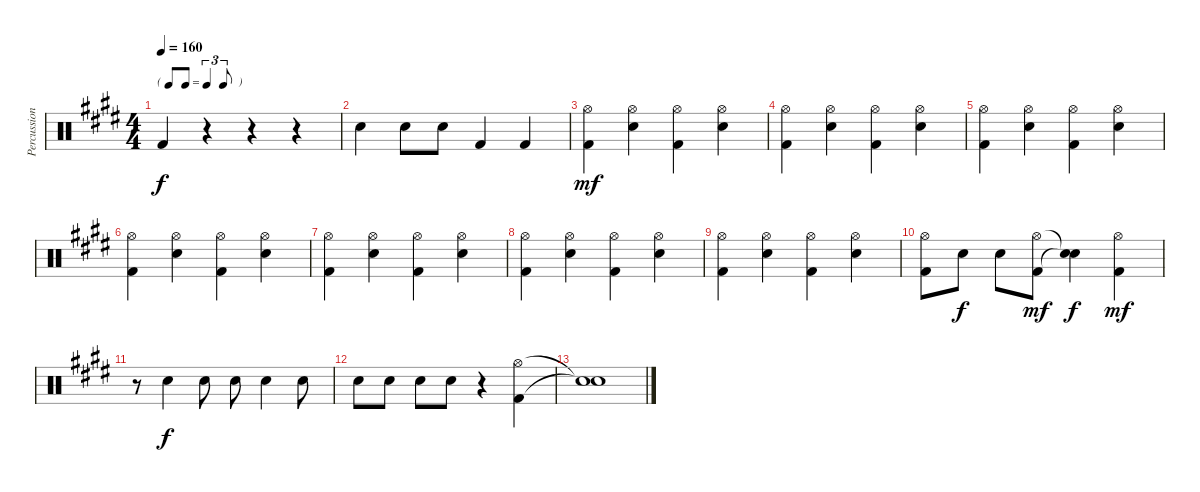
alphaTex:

\track ("Percussion" "Percussion") {instrument percussion}
\staff {score}
\articulation defaults
\ts (4 4)
\tf triplet8th
\tempo 160
\clef neutral
\ks e "Kick (hit) 2".4{dy f}
r.4 r.4 r.4 |
"Snare (hit) 2".4 "Snare (hit) 2".8 "Snare (hit) 2".8 "Kick (hit) 2".4 "Kick (hit) 2".4 |
("Hi-Hat (open)" "Kick (hit) 2").4{dy mf} ("Hi-Hat (open)" "Snare (hit) 2").4 ("Hi-Hat (open)" "Kick (hit) 2").4 ("Hi-Hat (open)" "Snare (hit) 2").4 |
("Hi-Hat (open)" "Kick (hit) 2").4 ("Hi-Hat (open)" "Snare (hit) 2").4 ("Hi-Hat (open)" "Kick (hit) 2").4 ("Hi-Hat (open)" "Snare (hit) 2").4 |
("Hi-Hat (open)" "Kick (hit) 2").4 ("Hi-Hat (open)" "Snare (hit) 2").4 ("Hi-Hat (open)" "Kick (hit) 2").4 ("Hi-Hat (open)" "Snare (hit) 2").4 |
("Hi-Hat (open)" "Kick (hit) 2").4 ("Hi-Hat (open)" "Snare (hit) 2").4 ("Hi-Hat (open)" "Kick (hit) 2").4 ("Hi-Hat (open)" "Snare (hit) 2").4 |
("Hi-Hat (open)" "Kick (hit) 2").4 ("Hi-Hat (open)" "Snare (hit) 2").4 ("Hi-Hat (open)" "Kick (hit) 2").4 ("Hi-Hat (open)" "Snare (hit) 2").4 |
("Hi-Hat (open)" "Kick (hit) 2").4 ("Hi-Hat (open)" "Snare (hit) 2").4 ("Hi-Hat (open)" "Kick (hit) 2").4 ("Hi-Hat (open)" "Snare (hit) 2").4 |
("Hi-Hat (open)" "Kick (hit) 2").4 ("Hi-Hat (open)" "Snare (hit) 2").4 ("Hi-Hat (open)" "Kick (hit) 2").4 ("Hi-Hat (open)" "Snare (hit) 2").4 |
("Hi-Hat (open)" "Kick (hit) 2").8 "Snare (hit) 2".8{dy f} "Snare (hit) 2".8 ("Hi-Hat (open)" "Kick (hit) 2").8{dy mf} ("Snare (hit)"{t} "Snare (hit)"{t}).4{dy f} ("Hi-Hat (open)" "Kick (hit) 2").4{dy mf} |
r.8 "Snare (hit) 2".4{dy f} "Snare (hit) 2".8 "Snare (hit) 2".8 "Snare (hit) 2".4 "Snare (hit) 2".8 |
"Snare (hit) 2".8 "Snare (hit) 2".8 "Snare (hit) 2".8 "Snare (hit) 2".8 r.4 ("Hi-Hat (open)" "Kick (hit) 2").4 |
("Snare (hit)"{t} "Snare (hit)"{t}).1
